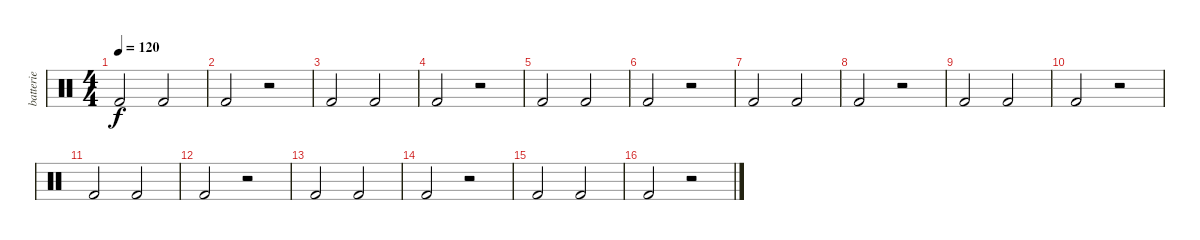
\track ("batterie" "batterie") {instrument percussion}
\staff {score}
\articulation defaults
\ts (4 4)
\tempo 120
\clef neutral
\ks c "Kick (hit) 2".2{dy f} "Kick (hit) 2".2
|
"Kick (hit) 2".2 r.2 |
"Kick (hit) 2".2 "Kick (hit) 2".2 |
"Kick (hit) 2".2 r.2 |
"Kick (hit) 2".2 "Kick (hit) 2".2 |
"Kick (hit) 2".2 r.2 |
"Kick (hit) 2".2 "Kick (hit) 2".2 |
"Kick (hit) 2".2 r.2 |
"Kick (hit) 2".2 "Kick (hit) 2".2 |
"Kick (hit) 2".2 r.2 |
"Kick (hit) 2".2 "Kick (hit) 2".2 |
"Kick (hit) 2".2 r.2 |
"Kick (hit) 2".2 "Kick (hit) 2".2 |
"Kick (hit) 2".2 r.2 |
"Kick (hit) 2".2 "Kick (hit) 2".2 |
"Kick (hit) 2".2 r.2
